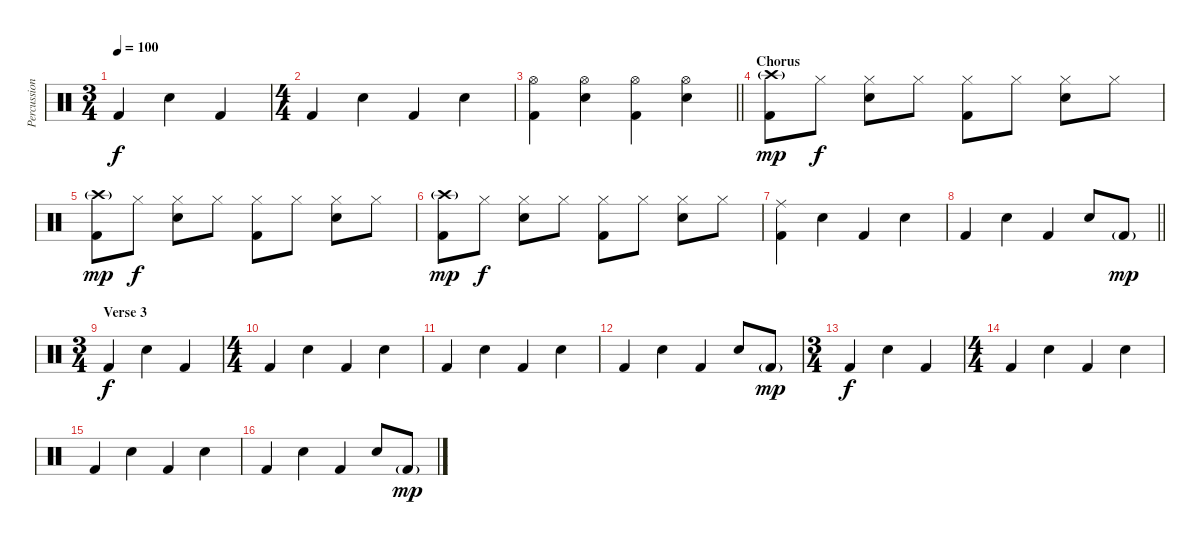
\track ("Percussion" "Percussion") {instrument percussion}
\staff {score}
\articulation defaults
\ts (3 4)
\tempo 100
\clef neutral
\ks c "Kick (hit) 2".4{dy f} "Snare (hit) 2".4 "Kick (hit) 2".4
|
\ts (4 4)
"Kick (hit) 2".4 "Snare (hit) 2".4 "Kick (hit) 2".4 "Snare (hit) 2".4 |
\barLineRight lightlight
("Hi-Hat (open)" "Kick (hit) 2").4 ("Hi-Hat (open)" "Snare (hit) 2").4 ("Hi-Hat (open)" "Kick (hit) 2").4 ("Hi-Hat (open)" "Snare (hit) 2").4 |
\section ("" "Chorus")
("Crash high (hit)"{g} "Kick (hit) 2").8{dy mp} "Hi-Hat (closed)".8{dy f} ("Hi-Hat (closed)" "Snare (hit) 2").8 "Hi-Hat (closed)".8 ("Hi-Hat (closed)" "Kick (hit) 2").8 "Hi-Hat (closed)".8 ("Hi-Hat (closed)" "Snare (hit) 2").8 "Hi-Hat (closed)".8 |
("Crash high (hit)"{g} "Kick (hit) 2").8{dy mp} "Hi-Hat (closed)".8{dy f} ("Hi-Hat (closed)" "Snare (hit) 2").8 "Hi-Hat (closed)".8 ("Hi-Hat (closed)" "Kick (hit) 2").8 "Hi-Hat (closed)".8 ("Hi-Hat (closed)" "Snare (hit) 2").8 "Hi-Hat (closed)".8 |
("Crash high (hit)"{g} "Kick (hit) 2").8{dy mp} "Hi-Hat (closed)".8{dy f} ("Hi-Hat (closed)" "Snare (hit) 2").8 "Hi-Hat (closed)".8 ("Hi-Hat (closed)" "Kick (hit) 2").8 "Hi-Hat (closed)".8 ("Hi-Hat (closed)" "Snare (hit) 2").8 "Hi-Hat (closed)".8 |
("Ride (middle)" "Kick (hit) 2").4 "Snare (hit) 2".4 "Kick (hit) 2".4 "Snare (hit) 2".4 |
\barLineRight lightlight "Kick (hit) 2".4 "Snare (hit) 2".4 "Kick (hit) 2".4 "Snare (hit) 2".8 "Kick (hit) 2"{g}.8{dy mp}
|
\ts (3 4)
\section ("" "Verse 3")
"Kick (hit) 2".4{dy f} "Snare (hit) 2".4 "Kick (hit) 2".4 |
\ts (4 4)
"Kick (hit) 2".4 "Snare (hit) 2".4 "Kick (hit) 2".4 "Snare (hit) 2".4 |
"Kick (hit) 2".4 "Snare (hit) 2".4 "Kick (hit) 2".4 "Snare (hit) 2".4 |
"Kick (hit) 2".4 "Snare (hit) 2".4 "Kick (hit) 2".4 "Snare (hit) 2".8 "Kick (hit) 2"{g}.8{dy mp} |
\ts (3 4)
"Kick (hit) 2".4{dy f} "Snare (hit) 2".4 "Kick (hit) 2".4 |
\ts (4 4)
"Kick (hit) 2".4 "Snare (hit) 2".4 "Kick (hit) 2".4 "Snare (hit) 2".4 |
"Kick (hit) 2".4 "Snare (hit) 2".4 "Kick (hit) 2".4 "Snare (hit) 2".4 |
"Kick (hit) 2".4 "Snare (hit) 2".4 "Kick (hit) 2".4 "Snare (hit) 2".8 "Kick (hit) 2"{g}.8{dy mp}
